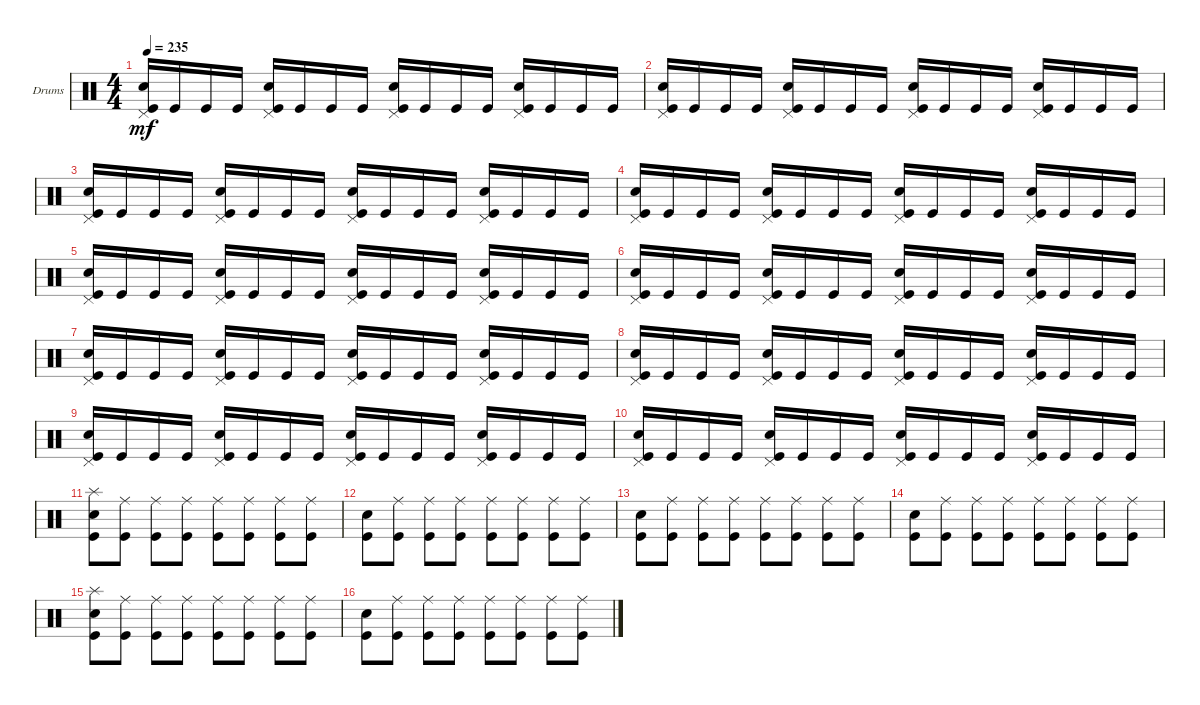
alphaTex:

\defaultSystemsLayout 4
\bracketExtendMode groupsimilarinstruments
\firstSystemTrackNameOrientation horizontal
\otherSystemsTrackNameOrientation horizontal
\track ("Drumkit" "Drums") {instrument percussion}
\staff {score}
\articulation defaults
\ts (4 4)
\tempo 235
\clef neutral
\scale
0.333333
\ks c
("Kick (hit)" "Pedal Hi-Hat (hit)" "Snare (hit) 2").16{dy mf} "Kick (hit)".16 "Kick (hit)".16 "Kick (hit)".16 ("Kick (hit)" "Pedal Hi-Hat (hit)" "Snare (hit) 2").16 "Kick (hit)".16 "Kick (hit)".16 "Kick (hit)".16 ("Kick (hit)" "Pedal Hi-Hat (hit)" "Snare (hit) 2").16 "Kick (hit)".16 "Kick (hit)".16 "Kick (hit)".16 ("Kick (hit)" "Pedal Hi-Hat (hit)" "Snare (hit) 2").16 "Kick (hit)".16 "Kick (hit)".16 "Kick (hit)".16 |
\scale
0.333333 ("Kick (hit)" "Pedal Hi-Hat (hit)" "Snare (hit) 2").16 "Kick (hit)".16 "Kick (hit)".16 "Kick (hit)".16 ("Kick (hit)" "Pedal Hi-Hat (hit)" "Snare (hit) 2").16 "Kick (hit)".16 "Kick (hit)".16 "Kick (hit)".16 ("Kick (hit)" "Pedal Hi-Hat (hit)" "Snare (hit) 2").16 "Kick (hit)".16 "Kick (hit)".16 "Kick (hit)".16 ("Kick (hit)" "Pedal Hi-Hat (hit)" "Snare (hit) 2").16 "Kick (hit)".16 "Kick (hit)".16 "Kick (hit)".16 |
\scale
0.333333 ("Kick (hit)" "Pedal Hi-Hat (hit)" "Snare (hit) 2").16 "Kick (hit)".16 "Kick (hit)".16 "Kick (hit)".16 ("Kick (hit)" "Pedal Hi-Hat (hit)" "Snare (hit) 2").16 "Kick (hit)".16 "Kick (hit)".16 "Kick (hit)".16 ("Kick (hit)" "Pedal Hi-Hat (hit)" "Snare (hit) 2").16 "Kick (hit)".16 "Kick (hit)".16 "Kick (hit)".16 ("Kick (hit)" "Pedal Hi-Hat (hit)" "Snare (hit) 2").16 "Kick (hit)".16 "Kick (hit)".16 "Kick (hit)".16 |
\scale
0.333333 ("Kick (hit)" "Pedal Hi-Hat (hit)" "Snare (hit) 2").16 "Kick (hit)".16 "Kick (hit)".16 "Kick (hit)".16 ("Kick (hit)" "Pedal Hi-Hat (hit)" "Snare (hit) 2").16 "Kick (hit)".16 "Kick (hit)".16 "Kick (hit)".16 ("Kick (hit)" "Pedal Hi-Hat (hit)" "Snare (hit) 2").16 "Kick (hit)".16 "Kick (hit)".16 "Kick (hit)".16 ("Kick (hit)" "Pedal Hi-Hat (hit)" "Snare (hit) 2").16 "Kick (hit)".16 "Kick (hit)".16 "Kick (hit)".16 |
\scale
0.333333 ("Kick (hit)" "Pedal Hi-Hat (hit)" "Snare (hit) 2").16 "Kick (hit)".16 "Kick (hit)".16 "Kick (hit)".16 ("Kick (hit)" "Pedal Hi-Hat (hit)" "Snare (hit) 2").16 "Kick (hit)".16 "Kick (hit)".16 "Kick (hit)".16 ("Kick (hit)" "Pedal Hi-Hat (hit)" "Snare (hit) 2").16 "Kick (hit)".16 "Kick (hit)".16 "Kick (hit)".16 ("Kick (hit)" "Pedal Hi-Hat (hit)" "Snare (hit) 2").16 "Kick (hit)".16 "Kick (hit)".16 "Kick (hit)".16 |
\scale
0.333333 ("Kick (hit)" "Pedal Hi-Hat (hit)" "Snare (hit) 2").16 "Kick (hit)".16 "Kick (hit)".16 "Kick (hit)".16 ("Kick (hit)" "Pedal Hi-Hat (hit)" "Snare (hit) 2").16 "Kick (hit)".16 "Kick (hit)".16 "Kick (hit)".16 ("Kick (hit)" "Pedal Hi-Hat (hit)" "Snare (hit) 2").16 "Kick (hit)".16 "Kick (hit)".16 "Kick (hit)".16 ("Kick (hit)" "Pedal Hi-Hat (hit)" "Snare (hit) 2").16 "Kick (hit)".16 "Kick (hit)".16 "Kick (hit)".16 |
\scale
0.333333 ("Kick (hit)" "Pedal Hi-Hat (hit)" "Snare (hit) 2").16 "Kick (hit)".16 "Kick (hit)".16 "Kick (hit)".16 ("Kick (hit)" "Pedal Hi-Hat (hit)" "Snare (hit) 2").16 "Kick (hit)".16 "Kick (hit)".16 "Kick (hit)".16 ("Kick (hit)" "Pedal Hi-Hat (hit)" "Snare (hit) 2").16 "Kick (hit)".16 "Kick (hit)".16 "Kick (hit)".16 ("Kick (hit)" "Pedal Hi-Hat (hit)" "Snare (hit) 2").16 "Kick (hit)".16 "Kick (hit)".16 "Kick (hit)".16 |
\scale
0.333333 ("Kick (hit)" "Pedal Hi-Hat (hit)" "Snare (hit) 2").16 "Kick (hit)".16 "Kick (hit)".16 "Kick (hit)".16 ("Kick (hit)" "Pedal Hi-Hat (hit)" "Snare (hit) 2").16 "Kick (hit)".16 "Kick (hit)".16 "Kick (hit)".16 ("Kick (hit)" "Pedal Hi-Hat (hit)" "Snare (hit) 2").16 "Kick (hit)".16 "Kick (hit)".16 "Kick (hit)".16 ("Kick (hit)" "Pedal Hi-Hat (hit)" "Snare (hit) 2").16 "Kick (hit)".16 "Kick (hit)".16 "Kick (hit)".16 |
\scale
0.333333 ("Kick (hit)" "Pedal Hi-Hat (hit)" "Snare (hit) 2").16 "Kick (hit)".16 "Kick (hit)".16 "Kick (hit)".16 ("Kick (hit)" "Pedal Hi-Hat (hit)" "Snare (hit) 2").16 "Kick (hit)".16 "Kick (hit)".16 "Kick (hit)".16 ("Kick (hit)" "Pedal Hi-Hat (hit)" "Snare (hit) 2").16 "Kick (hit)".16 "Kick (hit)".16 "Kick (hit)".16 ("Kick (hit)" "Pedal Hi-Hat (hit)" "Snare (hit) 2").16 "Kick (hit)".16 "Kick (hit)".16 "Kick (hit)".16 |
\scale
0.333333 ("Kick (hit)" "Pedal Hi-Hat (hit)" "Snare (hit) 2").16 "Kick (hit)".16 "Kick (hit)".16 "Kick (hit)".16 ("Kick (hit)" "Pedal Hi-Hat (hit)" "Snare (hit) 2").16 "Kick (hit)".16 "Kick (hit)".16 "Kick (hit)".16 ("Kick (hit)" "Pedal Hi-Hat (hit)" "Snare (hit) 2").16 "Kick (hit)".16 "Kick (hit)".16 "Kick (hit)".16 ("Kick (hit)" "Pedal Hi-Hat (hit)" "Snare (hit) 2").16 "Kick (hit)".16 "Kick (hit)".16 "Kick (hit)".16 |
\scale
0.333333 ("Kick (hit)" "Snare (hit) 2" "Splash (hit)").8 ("Kick (hit)" "Ride (middle)").8 ("Kick (hit)" "Ride (middle)").8 ("Kick (hit)" "Ride (middle)").8 ("Kick (hit)" "Ride (middle)").8 ("Kick (hit)" "Ride (middle)").8 ("Kick (hit)" "Ride (middle)").8 ("Kick (hit)" "Ride (middle)").8 |
\scale
0.333333 ("Kick (hit)" "Snare (hit) 2").8 ("Kick (hit)" "Ride (middle)").8 ("Kick (hit)" "Ride (middle)").8 ("Kick (hit)" "Ride (middle)").8 ("Kick (hit)" "Ride (middle)").8 ("Kick (hit)" "Ride (middle)").8 ("Kick (hit)" "Ride (middle)").8 ("Kick (hit)" "Ride (middle)").8 |
\scale
0.333333 ("Kick (hit)" "Snare (hit) 2").8 ("Kick (hit)" "Ride (middle)").8 ("Kick (hit)" "Ride (middle)").8 ("Kick (hit)" "Ride (middle)").8 ("Kick (hit)" "Ride (middle)").8 ("Kick (hit)" "Ride (middle)").8 ("Kick (hit)" "Ride (middle)").8 ("Kick (hit)" "Ride (middle)").8 |
\scale
0.333333 ("Kick (hit)" "Snare (hit) 2").8 ("Kick (hit)" "Ride (middle)").8 ("Kick (hit)" "Ride (middle)").8 ("Kick (hit)" "Ride (middle)").8 ("Kick (hit)" "Ride (middle)").8 ("Kick (hit)" "Ride (middle)").8 ("Kick (hit)" "Ride (middle)").8 ("Kick (hit)" "Ride (middle)").8 |
\scale
0.333333 ("Kick (hit)" "Snare (hit) 2" "Splash (hit)").8 ("Kick (hit)" "Ride (middle)").8 ("Kick (hit)" "Ride (middle)").8 ("Kick (hit)" "Ride (middle)").8 ("Kick (hit)" "Ride (middle)").8 ("Kick (hit)" "Ride (middle)").8 ("Kick (hit)" "Ride (middle)").8 ("Kick (hit)" "Ride (middle)").8 |
\scale
0.333333 ("Kick (hit)" "Snare (hit) 2").8 ("Kick (hit)" "Ride (middle)").8 ("Kick (hit)" "Ride (middle)").8 ("Kick (hit)" "Ride (middle)").8 ("Kick (hit)" "Ride (middle)").8 ("Kick (hit)" "Ride (middle)").8 ("Kick (hit)" "Ride (middle)").8 ("Kick (hit)" "Ride (middle)").8
